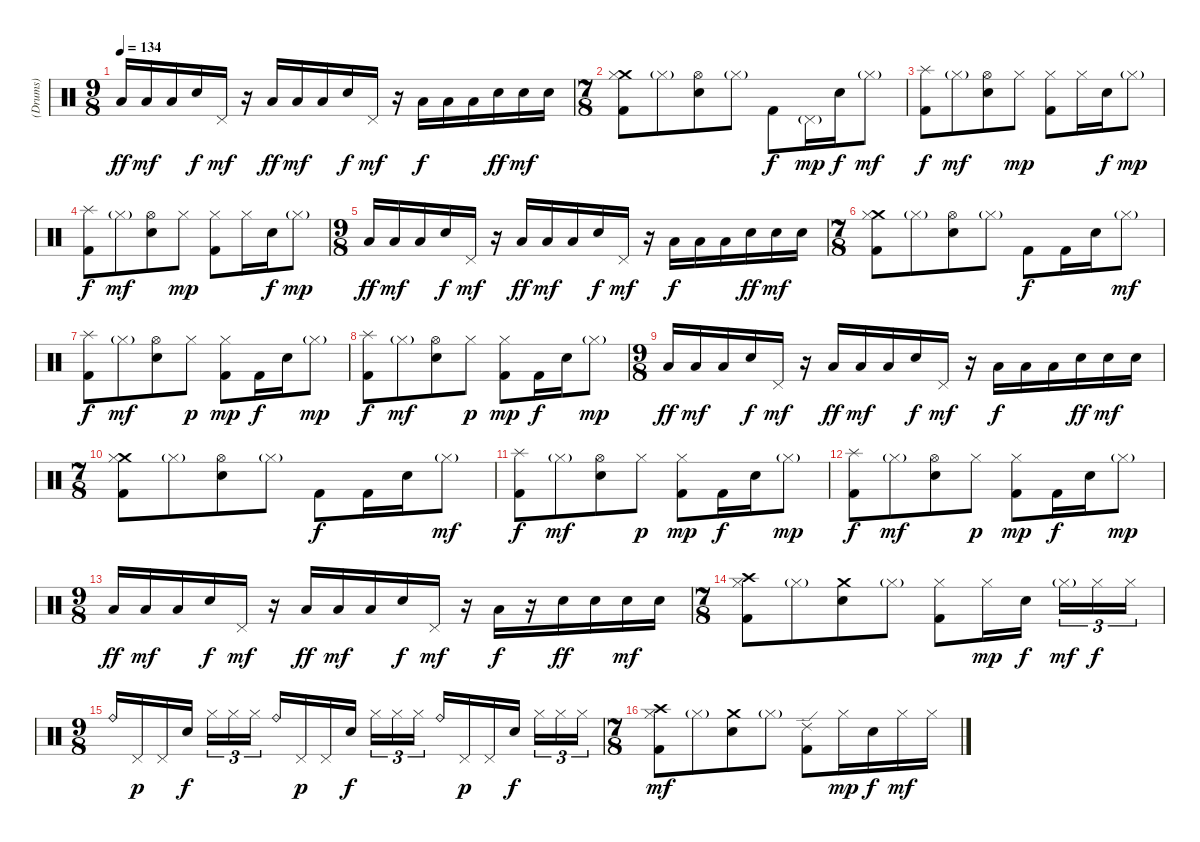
\track ("(Drums)" "(Drums)") {instrument percussion}
\staff {score}
\articulation defaults
\ts (9 8)
\tempo 134
\clef neutral
\ks c "Low Tom (hit)".16{dy ff} "Low Tom (hit)".16{dy mf} "Low Tom (hit)".16 "Electric Snare (hit)".16{dy f} "Pedal Hi-Hat (hit)".16{dy mf}
r.16 "Low Tom (hit)".16{dy ff} "Low Tom (hit)".16{dy mf} "Low Tom (hit)".16 "Electric Snare (hit)".16{dy f} "Pedal Hi-Hat (hit)".16{dy mf} r.16 "Low Tom (hit)".16{dy f} "Low Tom (hit)".16 "Low Tom (hit)".16 "Electric Snare (hit)".16{dy ff} "Electric Snare (hit)".16{dy mf} "Electric Snare (hit)".16 |
\ts (7 8)
("Crash medium (hit)" "Hi-Hat (closed)" "Kick (hit) 2").8 "Hi-Hat (closed)"{g}.8 ("Hi-Hat (open)" "Electric Snare (hit)").8 "Hi-Hat (closed)"{g}.8 "Kick (hit) 2".8{dy f} "Pedal Hi-Hat (hit)"{g}.16{dy mp} "Electric Snare (hit)".16{dy f} "Hi-Hat (closed)"{g}.8{dy mf} |
("Splash (hit)" "Kick (hit) 2").8{dy f} "Hi-Hat (closed)"{g}.8{dy mf} ("Hi-Hat (open)" "Electric Snare (hit)").8 "Hi-Hat (closed)".8{dy mp} ("Hi-Hat (closed)" "Kick (hit) 2").8 "Hi-Hat (closed)".16 "Electric Snare (hit)".16{dy f} "Hi-Hat (closed)"{g}.8{dy mp} |
("Splash (hit)" "Kick (hit) 2").8{dy f} "Hi-Hat (closed)"{g}.8{dy mf} ("Hi-Hat (open)" "Electric Snare (hit)").8 "Hi-Hat (closed)".8{dy mp} ("Hi-Hat (closed)" "Kick (hit) 2").8 "Hi-Hat (closed)".16 "Electric Snare (hit)".16{dy f} "Hi-Hat (closed)"{g}.8{dy mp} |
\ts (9 8)
"Low Tom (hit)".16{dy ff} "Low Tom (hit)".16{dy mf} "Low Tom (hit)".16 "Electric Snare (hit)".16{dy f} "Pedal Hi-Hat (hit)".16{dy mf} r.16 "Low Tom (hit)".16{dy ff} "Low Tom (hit)".16{dy mf} "Low Tom (hit)".16 "Electric Snare (hit)".16{dy f} "Pedal Hi-Hat (hit)".16{dy mf} r.16 "Low Tom (hit)".16{dy f} "Low Tom (hit)".16 "Low Tom (hit)".16 "Electric Snare (hit)".16{dy ff} "Electric Snare (hit)".16{dy mf} "Electric Snare (hit)".16 |
\ts (7 8)
("Crash medium (hit)" "Hi-Hat (closed)" "Kick (hit) 2").8 "Hi-Hat (closed)"{g}.8 ("Hi-Hat (open)" "Electric Snare (hit)").8 "Hi-Hat (closed)"{g}.8 "Kick (hit) 2".8{dy f} "Kick (hit) 2".16 "Electric Snare (hit)".16 "Hi-Hat (closed)"{g}.8{dy mf} |
("Splash (hit)" "Kick (hit) 2").8{dy f} "Hi-Hat (closed)"{g}.8{dy mf} ("Hi-Hat (open)" "Electric Snare (hit)").8 "Hi-Hat (closed)".8{dy p} ("Hi-Hat (closed)" "Kick (hit) 2").8{dy mp} "Kick (hit) 2".16{dy f} "Electric Snare (hit)".16 "Hi-Hat (closed)"{g}.8{dy mp} |
("Splash (hit)" "Kick (hit) 2").8{dy f} "Hi-Hat (closed)"{g}.8{dy mf} ("Hi-Hat (open)" "Electric Snare (hit)").8 "Hi-Hat (closed)".8{dy p} ("Hi-Hat (closed)" "Kick (hit) 2").8{dy mp} "Kick (hit) 2".16{dy f} "Electric Snare (hit)".16 "Hi-Hat (closed)"{g}.8{dy mp} |
\ts (9 8)
"Low Tom (hit)".16{dy ff} "Low Tom (hit)".16{dy mf} "Low Tom (hit)".16 "Electric Snare (hit)".16{dy f} "Pedal Hi-Hat (hit)".16{dy mf} r.16 "Low Tom (hit)".16{dy ff} "Low Tom (hit)".16{dy mf} "Low Tom (hit)".16 "Electric Snare (hit)".16{dy f} "Pedal Hi-Hat (hit)".16{dy mf} r.16 "Low Tom (hit)".16{dy f} "Low Tom (hit)".16 "Low Tom (hit)".16 "Electric Snare (hit)".16{dy ff} "Electric Snare (hit)".16{dy mf} "Electric Snare (hit)".16 |
\ts (7 8)
("Crash medium (hit)" "Hi-Hat (closed)" "Kick (hit) 2").8 "Hi-Hat (closed)"{g}.8 ("Hi-Hat (open)" "Electric Snare (hit)").8 "Hi-Hat (closed)"{g}.8 "Kick (hit) 2".8{dy f} "Kick (hit) 2".16 "Electric Snare (hit)".16 "Hi-Hat (closed)"{g}.8{dy mf} |
("Splash (hit)" "Kick (hit) 2").8{dy f} "Hi-Hat (closed)"{g}.8{dy mf} ("Hi-Hat (open)" "Electric Snare (hit)").8 "Hi-Hat (closed)".8{dy p} ("Hi-Hat (closed)" "Kick (hit) 2").8{dy mp} "Kick (hit) 2".16{dy f} "Electric Snare (hit)".16 "Hi-Hat (closed)"{g}.8{dy mp} |
("Splash (hit)" "Kick (hit) 2").8{dy f} "Hi-Hat (closed)"{g}.8{dy mf} ("Hi-Hat (open)" "Electric Snare (hit)").8 "Hi-Hat (closed)".8{dy p} ("Hi-Hat (closed)" "Kick (hit) 2").8{dy mp} "Kick (hit) 2".16{dy f} "Electric Snare (hit)".16 "Hi-Hat (closed)"{g}.8{dy mp} |
\ts (9 8)
"Low Tom (hit)".16{dy ff} "Low Tom (hit)".16{dy mf} "Low Tom (hit)".16 "Electric Snare (hit)".16{dy f} "Pedal Hi-Hat (hit)".16{dy mf} r.16 "Low Tom (hit)".16{dy ff} "Low Tom (hit)".16{dy mf} "Low Tom (hit)".16 "Electric Snare (hit)".16{dy f} "Pedal Hi-Hat (hit)".16{dy mf} r.16 "Low Tom (hit)".16{dy f} r.16 "Electric Snare (hit)".16{dy ff} "Electric Snare (hit)".16 "Electric Snare (hit)".16{dy mf} "Electric Snare (hit)".16 |
\ts (7 8)
("Crash high (hit)" "Hi-Hat (closed)" "Kick (hit) 2").8 "Hi-Hat (closed)"{g}.8 ("Crash medium (hit)" "Electric Snare (hit)").8 "Hi-Hat (closed)"{g}.8 ("Hi-Hat (closed)" "Kick (hit) 2").8 "Hi-Hat (closed)".16{dy mp} "Electric Snare (hit)".16{dy f} "Hi-Hat (closed)"{g}.16{tu (3 2) dy mf} "Hi-Hat (closed)".16{tu (3 2) dy f} "Hi-Hat (closed)".16{tu (3 2)} |
\ts (9 8)
"Ride (bell)".16 "Pedal Hi-Hat (hit)".16{dy p} "Pedal Hi-Hat (hit)".16 "Electric Snare (hit)".16{dy f} "Hi-Hat (closed)".16{tu (3 2)} "Hi-Hat (closed)".16{tu (3 2)} "Hi-Hat (closed)".16{tu (3 2)} "Ride (bell)".16 "Pedal Hi-Hat (hit)".16{dy p} "Pedal Hi-Hat (hit)".16 "Electric Snare (hit)".16{dy f} "Hi-Hat (closed)".16{tu (3 2)} "Hi-Hat (closed)".16{tu (3 2)} "Hi-Hat (closed)".16{tu (3 2)} "Ride (bell)".16 "Pedal Hi-Hat (hit)".16{dy p} "Pedal Hi-Hat (hit)".16 "Electric Snare (hit)".16{dy f} "Hi-Hat (closed)".16{tu (3 2)} "Hi-Hat (closed)".16{tu (3 2)} "Hi-Hat (closed)".16{tu (3 2)} |
\ts (7 8)
("Crash high (hit)" "Hi-Hat (closed)" "Kick (hit) 2").8{dy mf} "Hi-Hat (closed)"{g}.8 ("Crash medium (hit)" "Electric Snare (hit)").8 "Hi-Hat (closed)"{g}.8 ("Ride (edge) 2" "Kick (hit) 2").8 "Hi-Hat (closed)".16{dy mp} "Electric Snare (hit)".16{dy f} "Hi-Hat (closed)".16{dy mf} "Hi-Hat (closed)".16
